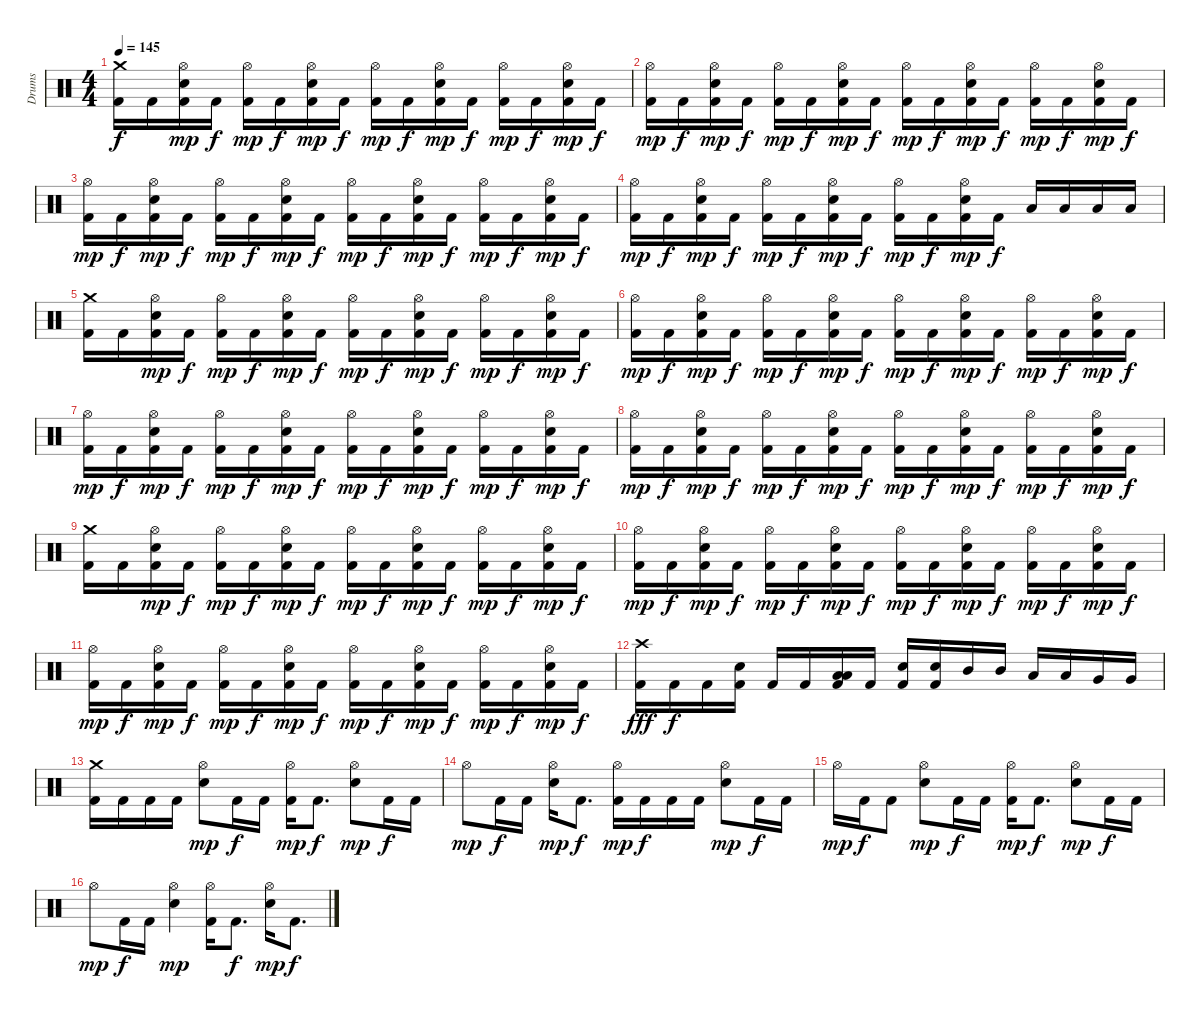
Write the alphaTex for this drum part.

\track ("Drums" "Drums") {instrument percussion}
\staff {score}
\articulation defaults
\ts (4 4)
\tempo 145
\clef neutral
\ks c
("Crash medium (hit)" "Kick (hit) 2").16{dy f} "Kick (hit) 2".16 ("Hi-Hat (open)" "Kick (hit) 2" "Electric Snare (hit)").16{dy mp} "Kick (hit) 2".16{dy f} ("Hi-Hat (open)" "Kick (hit) 2").16{dy mp} "Kick (hit) 2".16{dy f} ("Hi-Hat (open)" "Kick (hit) 2" "Electric Snare (hit)").16{dy mp} "Kick (hit) 2".16{dy f} ("Hi-Hat (open)" "Kick (hit) 2").16{dy mp} "Kick (hit) 2".16{dy f} ("Hi-Hat (open)" "Kick (hit) 2" "Electric Snare (hit)").16{dy mp} "Kick (hit) 2".16{dy f} ("Hi-Hat (open)" "Kick (hit) 2").16{dy mp} "Kick (hit) 2".16{dy f} ("Hi-Hat (open)" "Kick (hit) 2" "Electric Snare (hit)").16{dy mp} "Kick (hit) 2".16{dy f} |
("Hi-Hat (open)" "Kick (hit) 2").16{dy mp} "Kick (hit) 2".16{dy f} ("Hi-Hat (open)" "Kick (hit) 2" "Electric Snare (hit)").16{dy mp} "Kick (hit) 2".16{dy f} ("Hi-Hat (open)" "Kick (hit) 2").16{dy mp} "Kick (hit) 2".16{dy f} ("Hi-Hat (open)" "Kick (hit) 2" "Electric Snare (hit)").16{dy mp} "Kick (hit) 2".16{dy f} ("Hi-Hat (open)" "Kick (hit) 2").16{dy mp} "Kick (hit) 2".16{dy f} ("Hi-Hat (open)" "Kick (hit) 2" "Electric Snare (hit)").16{dy mp} "Kick (hit) 2".16{dy f} ("Hi-Hat (open)" "Kick (hit) 2").16{dy mp} "Kick (hit) 2".16{dy f} ("Hi-Hat (open)" "Kick (hit) 2" "Electric Snare (hit)").16{dy mp} "Kick (hit) 2".16{dy f} |
("Hi-Hat (open)" "Kick (hit) 2").16{dy mp} "Kick (hit) 2".16{dy f} ("Hi-Hat (open)" "Kick (hit) 2" "Electric Snare (hit)").16{dy mp} "Kick (hit) 2".16{dy f} ("Hi-Hat (open)" "Kick (hit) 2").16{dy mp} "Kick (hit) 2".16{dy f} ("Hi-Hat (open)" "Kick (hit) 2" "Electric Snare (hit)").16{dy mp} "Kick (hit) 2".16{dy f} ("Hi-Hat (open)" "Kick (hit) 2").16{dy mp} "Kick (hit) 2".16{dy f} ("Hi-Hat (open)" "Kick (hit) 2" "Electric Snare (hit)").16{dy mp} "Kick (hit) 2".16{dy f} ("Hi-Hat (open)" "Kick (hit) 2").16{dy mp} "Kick (hit) 2".16{dy f} ("Hi-Hat (open)" "Kick (hit) 2" "Electric Snare (hit)").16{dy mp} "Kick (hit) 2".16{dy f} |
("Hi-Hat (open)" "Kick (hit) 2").16{dy mp} "Kick (hit) 2".16{dy f} ("Hi-Hat (open)" "Kick (hit) 2" "Electric Snare (hit)").16{dy mp} "Kick (hit) 2".16{dy f} ("Hi-Hat (open)" "Kick (hit) 2").16{dy mp} "Kick (hit) 2".16{dy f} ("Hi-Hat (open)" "Kick (hit) 2" "Electric Snare (hit)").16{dy mp} "Kick (hit) 2".16{dy f} ("Hi-Hat (open)" "Kick (hit) 2").16{dy mp} "Kick (hit) 2".16{dy f} ("Hi-Hat (open)" "Kick (hit) 2" "Electric Snare (hit)").16{dy mp} "Kick (hit) 2".16{dy f} "Low Tom (hit)".16 "Low Tom (hit)".16 "Low Tom (hit)".16 "Low Tom (hit)".16 |
("Crash medium (hit)" "Kick (hit) 2").16 "Kick (hit) 2".16 ("Hi-Hat (open)" "Kick (hit) 2" "Electric Snare (hit)").16{dy mp} "Kick (hit) 2".16{dy f} ("Hi-Hat (open)" "Kick (hit) 2").16{dy mp} "Kick (hit) 2".16{dy f} ("Hi-Hat (open)" "Kick (hit) 2" "Electric Snare (hit)").16{dy mp} "Kick (hit) 2".16{dy f} ("Hi-Hat (open)" "Kick (hit) 2").16{dy mp} "Kick (hit) 2".16{dy f} ("Hi-Hat (open)" "Kick (hit) 2" "Electric Snare (hit)").16{dy mp} "Kick (hit) 2".16{dy f} ("Hi-Hat (open)" "Kick (hit) 2").16{dy mp} "Kick (hit) 2".16{dy f} ("Hi-Hat (open)" "Kick (hit) 2" "Electric Snare (hit)").16{dy mp} "Kick (hit) 2".16{dy f} |
("Hi-Hat (open)" "Kick (hit) 2").16{dy mp} "Kick (hit) 2".16{dy f} ("Hi-Hat (open)" "Kick (hit) 2" "Electric Snare (hit)").16{dy mp} "Kick (hit) 2".16{dy f} ("Hi-Hat (open)" "Kick (hit) 2").16{dy mp} "Kick (hit) 2".16{dy f} ("Hi-Hat (open)" "Kick (hit) 2" "Electric Snare (hit)").16{dy mp} "Kick (hit) 2".16{dy f} ("Hi-Hat (open)" "Kick (hit) 2").16{dy mp} "Kick (hit) 2".16{dy f} ("Hi-Hat (open)" "Kick (hit) 2" "Electric Snare (hit)").16{dy mp} "Kick (hit) 2".16{dy f} ("Hi-Hat (open)" "Kick (hit) 2").16{dy mp} "Kick (hit) 2".16{dy f} ("Hi-Hat (open)" "Kick (hit) 2" "Electric Snare (hit)").16{dy mp} "Kick (hit) 2".16{dy f} |
("Hi-Hat (open)" "Kick (hit) 2").16{dy mp} "Kick (hit) 2".16{dy f} ("Hi-Hat (open)" "Kick (hit) 2" "Electric Snare (hit)").16{dy mp} "Kick (hit) 2".16{dy f} ("Hi-Hat (open)" "Kick (hit) 2").16{dy mp} "Kick (hit) 2".16{dy f} ("Hi-Hat (open)" "Kick (hit) 2" "Electric Snare (hit)").16{dy mp} "Kick (hit) 2".16{dy f} ("Hi-Hat (open)" "Kick (hit) 2").16{dy mp} "Kick (hit) 2".16{dy f} ("Hi-Hat (open)" "Kick (hit) 2" "Electric Snare (hit)").16{dy mp} "Kick (hit) 2".16{dy f} ("Hi-Hat (open)" "Kick (hit) 2").16{dy mp} "Kick (hit) 2".16{dy f} ("Hi-Hat (open)" "Kick (hit) 2" "Electric Snare (hit)").16{dy mp} "Kick (hit) 2".16{dy f} |
("Hi-Hat (open)" "Kick (hit) 2").16{dy mp} "Kick (hit) 2".16{dy f} ("Hi-Hat (open)" "Kick (hit) 2" "Electric Snare (hit)").16{dy mp} "Kick (hit) 2".16{dy f} ("Hi-Hat (open)" "Kick (hit) 2").16{dy mp} "Kick (hit) 2".16{dy f} ("Hi-Hat (open)" "Kick (hit) 2" "Electric Snare (hit)").16{dy mp} "Kick (hit) 2".16{dy f} ("Hi-Hat (open)" "Kick (hit) 2").16{dy mp} "Kick (hit) 2".16{dy f} ("Hi-Hat (open)" "Kick (hit) 2" "Electric Snare (hit)").16{dy mp} "Kick (hit) 2".16{dy f} ("Hi-Hat (open)" "Kick (hit) 2").16{dy mp} "Kick (hit) 2".16{dy f} ("Hi-Hat (open)" "Kick (hit) 2" "Electric Snare (hit)").16{dy mp} "Kick (hit) 2".16{dy f} |
("Crash medium (hit)" "Kick (hit) 2").16 "Kick (hit) 2".16 ("Hi-Hat (open)" "Kick (hit) 2" "Electric Snare (hit)").16{dy mp} "Kick (hit) 2".16{dy f} ("Hi-Hat (open)" "Kick (hit) 2").16{dy mp} "Kick (hit) 2".16{dy f} ("Hi-Hat (open)" "Kick (hit) 2" "Electric Snare (hit)").16{dy mp} "Kick (hit) 2".16{dy f} ("Hi-Hat (open)" "Kick (hit) 2").16{dy mp} "Kick (hit) 2".16{dy f} ("Hi-Hat (open)" "Kick (hit) 2" "Electric Snare (hit)").16{dy mp} "Kick (hit) 2".16{dy f} ("Hi-Hat (open)" "Kick (hit) 2").16{dy mp} "Kick (hit) 2".16{dy f} ("Hi-Hat (open)" "Kick (hit) 2" "Electric Snare (hit)").16{dy mp} "Kick (hit) 2".16{dy f} |
("Hi-Hat (open)" "Kick (hit) 2").16{dy mp} "Kick (hit) 2".16{dy f} ("Hi-Hat (open)" "Kick (hit) 2" "Electric Snare (hit)").16{dy mp} "Kick (hit) 2".16{dy f} ("Hi-Hat (open)" "Kick (hit) 2").16{dy mp} "Kick (hit) 2".16{dy f} ("Hi-Hat (open)" "Kick (hit) 2" "Electric Snare (hit)").16{dy mp} "Kick (hit) 2".16{dy f} ("Hi-Hat (open)" "Kick (hit) 2").16{dy mp} "Kick (hit) 2".16{dy f} ("Hi-Hat (open)" "Kick (hit) 2" "Electric Snare (hit)").16{dy mp} "Kick (hit) 2".16{dy f} ("Hi-Hat (open)" "Kick (hit) 2").16{dy mp} "Kick (hit) 2".16{dy f} ("Hi-Hat (open)" "Kick (hit) 2" "Electric Snare (hit)").16{dy mp} "Kick (hit) 2".16{dy f} |
("Hi-Hat (open)" "Kick (hit) 2").16{dy mp} "Kick (hit) 2".16{dy f} ("Hi-Hat (open)" "Kick (hit) 2" "Electric Snare (hit)").16{dy mp} "Kick (hit) 2".16{dy f} ("Hi-Hat (open)" "Kick (hit) 2").16{dy mp} "Kick (hit) 2".16{dy f} ("Hi-Hat (open)" "Kick (hit) 2" "Electric Snare (hit)").16{dy mp} "Kick (hit) 2".16{dy f} ("Hi-Hat (open)" "Kick (hit) 2").16{dy mp} "Kick (hit) 2".16{dy f} ("Hi-Hat (open)" "Kick (hit) 2" "Electric Snare (hit)").16{dy mp} "Kick (hit) 2".16{dy f} ("Hi-Hat (open)" "Kick (hit) 2").16{dy mp} "Kick (hit) 2".16{dy f} ("Hi-Hat (open)" "Kick (hit) 2" "Electric Snare (hit)").16{dy mp} "Kick (hit) 2".16{dy f} |
("Crash high (hit)" "Kick (hit) 2").16{dy fff} "Kick (hit) 2".16{dy f} "Kick (hit) 2".16 ("Kick (hit) 2" "Electric Snare (hit)").16 "Kick (hit) 2".16 "Kick (hit) 2".16 ("Low Tom (hit)" "Kick (hit) 2" "Low Tom (hit)").16 "Kick (hit) 2".16 ("Kick (hit) 2" "Electric Snare (hit)").16 ("Kick (hit) 2" "Electric Snare (hit)").16 "Mid Tom (hit)".16 "Mid Tom (hit)".16 "Low Tom (hit)".16 "Low Tom (hit)".16 "Very Low Tom (hit)".16 "Very Low Tom (hit)".16 |
("Crash medium (hit)" "Kick (hit) 2").16 "Kick (hit) 2".16 "Kick (hit) 2".16 "Kick (hit) 2".16 ("Hi-Hat (open)" "Electric Snare (hit)").8{dy mp} "Kick (hit) 2".16{dy f} "Kick (hit) 2".16 ("Hi-Hat (open)" "Kick (hit) 2").16{dy mp} "Kick (hit) 2".8{d dy f} ("Hi-Hat (open)" "Electric Snare (hit)").8{dy mp} "Kick (hit) 2".16{dy f} "Kick (hit) 2".16 |
"Hi-Hat (open)".8{dy mp} "Kick (hit) 2".16{dy f} "Kick (hit) 2".16 ("Hi-Hat (open)" "Electric Snare (hit)").16{dy mp} "Kick (hit) 2".8{d dy f} ("Hi-Hat (open)" "Kick (hit) 2").16{dy mp} "Kick (hit) 2".16{dy f} "Kick (hit) 2".16 "Kick (hit) 2".16 ("Hi-Hat (open)" "Electric Snare (hit)").8{dy mp} "Kick (hit) 2".16{dy f} "Kick (hit) 2".16 |
"Hi-Hat (open)".16{dy mp} "Kick (hit) 2".16{dy f} "Kick (hit) 2".8 ("Hi-Hat (open)" "Electric Snare (hit)").8{dy mp} "Kick (hit) 2".16{dy f} "Kick (hit) 2".16 ("Hi-Hat (open)" "Kick (hit) 2").16{dy mp} "Kick (hit) 2".8{d dy f} ("Hi-Hat (open)" "Electric Snare (hit)").8{dy mp} "Kick (hit) 2".16{dy f} "Kick (hit) 2".16 |
"Hi-Hat (open)".8{dy mp} "Kick (hit) 2".16{dy f} "Kick (hit) 2".16 ("Hi-Hat (open)" "Electric Snare (hit)").4{dy mp} ("Hi-Hat (open)" "Kick (hit) 2").16 "Kick (hit) 2".8{d dy f} ("Hi-Hat (open)" "Electric Snare (hit)").16{dy mp} "Kick (hit) 2".8{d dy f}
